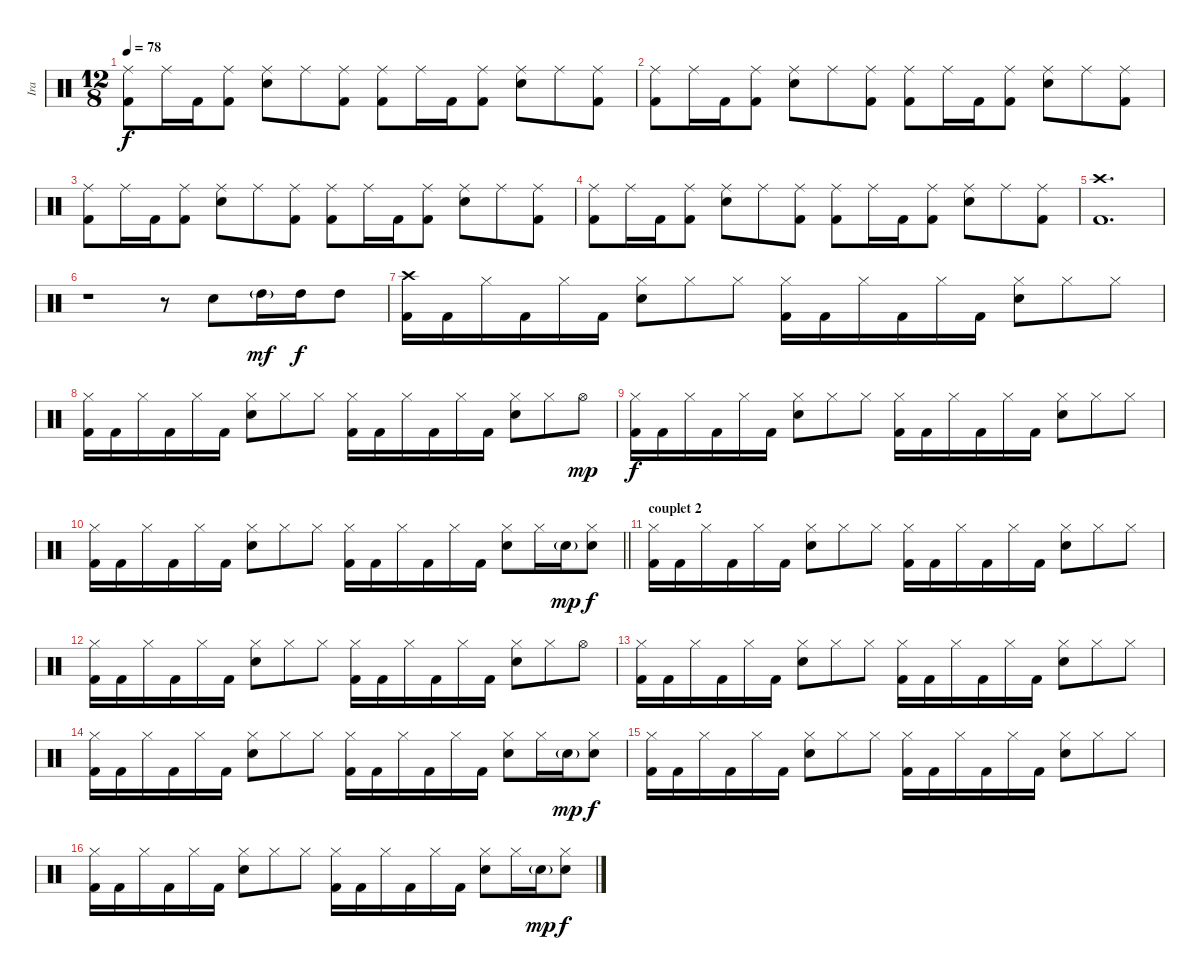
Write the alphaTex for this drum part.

\track ("Ira" "Ira") {instrument percussion}
\staff {score}
\articulation defaults
\ts (12 8)
\tempo 78
\clef neutral
\ks c
("Ride (middle)" "Kick (hit) 2").8{dy f} "Ride (middle)".16 "Kick (hit) 2".16 ("Ride (middle)" "Kick (hit) 2").8 ("Ride (middle)" "Snare (hit) 2").8 "Ride (middle)".8 ("Ride (middle)" "Kick (hit) 2").8 ("Ride (middle)" "Kick (hit) 2").8 "Ride (middle)".16 "Kick (hit) 2".16 ("Ride (middle)" "Kick (hit) 2").8 ("Ride (middle)" "Snare (hit) 2").8 "Ride (middle)".8 ("Ride (middle)" "Kick (hit) 2").8 |
("Ride (middle)" "Kick (hit) 2").8 "Ride (middle)".16 "Kick (hit) 2".16 ("Ride (middle)" "Kick (hit) 2").8 ("Ride (middle)" "Snare (hit) 2").8 "Ride (middle)".8 ("Ride (middle)" "Kick (hit) 2").8 ("Ride (middle)" "Kick (hit) 2").8 "Ride (middle)".16 "Kick (hit) 2".16 ("Ride (middle)" "Kick (hit) 2").8 ("Ride (middle)" "Snare (hit) 2").8 "Ride (middle)".8 ("Ride (middle)" "Kick (hit) 2").8 |
("Ride (middle)" "Kick (hit) 2").8 "Ride (middle)".16 "Kick (hit) 2".16 ("Ride (middle)" "Kick (hit) 2").8 ("Ride (middle)" "Snare (hit) 2").8 "Ride (middle)".8 ("Ride (middle)" "Kick (hit) 2").8 ("Ride (middle)" "Kick (hit) 2").8 "Ride (middle)".16 "Kick (hit) 2".16 ("Ride (middle)" "Kick (hit) 2").8 ("Ride (middle)" "Snare (hit) 2").8 "Ride (middle)".8 ("Ride (middle)" "Kick (hit) 2").8 |
("Ride (middle)" "Kick (hit) 2").8 "Ride (middle)".16 "Kick (hit) 2".16 ("Ride (middle)" "Kick (hit) 2").8 ("Ride (middle)" "Snare (hit) 2").8 "Ride (middle)".8 ("Ride (middle)" "Kick (hit) 2").8 ("Ride (middle)" "Kick (hit) 2").8 "Ride (middle)".16 "Kick (hit) 2".16 ("Ride (middle)" "Kick (hit) 2").8 ("Ride (middle)" "Snare (hit) 2").8 "Ride (middle)".8 ("Ride (middle)" "Kick (hit) 2").8 |
("Crash high (hit)" "Kick (hit) 2").1{d} |
r.1 r.8 "Snare (hit) 2".8 "High Tom (hit)"{g}.16{dy mf} "High Tom (hit)".16{dy f} "High Tom (hit)".8 |
("Crash high (hit)" "Kick (hit) 2").16 "Kick (hit) 2".16 "Hi-Hat (closed)".16 "Kick (hit) 2".16 "Hi-Hat (closed)".16 "Kick (hit) 2".16 ("Hi-Hat (closed)" "Snare (hit) 2").8 "Hi-Hat (closed)".8 "Hi-Hat (closed)".8 ("Hi-Hat (closed)" "Kick (hit) 2").16 "Kick (hit) 2".16 "Hi-Hat (closed)".16 "Kick (hit) 2".16 "Hi-Hat (closed)".16 "Kick (hit) 2".16 ("Hi-Hat (closed)" "Snare (hit) 2").8 "Hi-Hat (closed)".8 "Hi-Hat (closed)".8 |
("Hi-Hat (closed)" "Kick (hit) 2").16 "Kick (hit) 2".16 "Hi-Hat (closed)".16 "Kick (hit) 2".16 "Hi-Hat (closed)".16 "Kick (hit) 2".16 ("Hi-Hat (closed)" "Snare (hit) 2").8 "Hi-Hat (closed)".8 "Hi-Hat (closed)".8 ("Hi-Hat (closed)" "Kick (hit) 2").16 "Kick (hit) 2".16 "Hi-Hat (closed)".16 "Kick (hit) 2".16 "Hi-Hat (closed)".16 "Kick (hit) 2".16 ("Hi-Hat (closed)" "Snare (hit) 2").8 "Hi-Hat (closed)".8 "Hi-Hat (open)".8{dy mp} |
("Hi-Hat (closed)" "Kick (hit) 2").16{dy f} "Kick (hit) 2".16 "Hi-Hat (closed)".16 "Kick (hit) 2".16 "Hi-Hat (closed)".16 "Kick (hit) 2".16 ("Hi-Hat (closed)" "Snare (hit) 2").8 "Hi-Hat (closed)".8 "Hi-Hat (closed)".8 ("Hi-Hat (closed)" "Kick (hit) 2").16 "Kick (hit) 2".16 "Hi-Hat (closed)".16 "Kick (hit) 2".16 "Hi-Hat (closed)".16 "Kick (hit) 2".16 ("Hi-Hat (closed)" "Snare (hit) 2").8 "Hi-Hat (closed)".8 "Hi-Hat (closed)".8 |
\barLineRight lightlight
("Hi-Hat (closed)" "Kick (hit) 2").16 "Kick (hit) 2".16 "Hi-Hat (closed)".16 "Kick (hit) 2".16 "Hi-Hat (closed)".16 "Kick (hit) 2".16 ("Hi-Hat (closed)" "Snare (hit) 2").8 "Hi-Hat (closed)".8 "Hi-Hat (closed)".8 ("Hi-Hat (closed)" "Kick (hit) 2").16 "Kick (hit) 2".16 "Hi-Hat (closed)".16 "Kick (hit) 2".16 "Hi-Hat (closed)".16 "Kick (hit) 2".16 ("Hi-Hat (closed)" "Snare (hit) 2").8 "Hi-Hat (closed)".16 "Snare (hit) 2"{g}.16{dy mp} ("Hi-Hat (closed)" "Snare (hit) 2").8{dy f} |
\section ("" "couplet 2")
("Hi-Hat (closed)" "Kick (hit) 2").16 "Kick (hit) 2".16 "Hi-Hat (closed)".16 "Kick (hit) 2".16 "Hi-Hat (closed)".16 "Kick (hit) 2".16 ("Hi-Hat (closed)" "Snare (hit) 2").8 "Hi-Hat (closed)".8 "Hi-Hat (closed)".8 ("Hi-Hat (closed)" "Kick (hit) 2").16 "Kick (hit) 2".16 "Hi-Hat (closed)".16 "Kick (hit) 2".16 "Hi-Hat (closed)".16 "Kick (hit) 2".16 ("Hi-Hat (closed)" "Snare (hit) 2").8 "Hi-Hat (closed)".8 "Hi-Hat (closed)".8 |
("Hi-Hat (closed)" "Kick (hit) 2").16 "Kick (hit) 2".16 "Hi-Hat (closed)".16 "Kick (hit) 2".16 "Hi-Hat (closed)".16 "Kick (hit) 2".16 ("Hi-Hat (closed)" "Snare (hit) 2").8 "Hi-Hat (closed)".8 "Hi-Hat (closed)".8 ("Hi-Hat (closed)" "Kick (hit) 2").16 "Kick (hit) 2".16 "Hi-Hat (closed)".16 "Kick (hit) 2".16 "Hi-Hat (closed)".16 "Kick (hit) 2".16 ("Hi-Hat (closed)" "Snare (hit) 2").8 "Hi-Hat (closed)".8 "Hi-Hat (open)".8 |
("Hi-Hat (closed)" "Kick (hit) 2").16 "Kick (hit) 2".16 "Hi-Hat (closed)".16 "Kick (hit) 2".16 "Hi-Hat (closed)".16 "Kick (hit) 2".16 ("Hi-Hat (closed)" "Snare (hit) 2").8 "Hi-Hat (closed)".8 "Hi-Hat (closed)".8 ("Hi-Hat (closed)" "Kick (hit) 2").16 "Kick (hit) 2".16 "Hi-Hat (closed)".16 "Kick (hit) 2".16 "Hi-Hat (closed)".16 "Kick (hit) 2".16 ("Hi-Hat (closed)" "Snare (hit) 2").8 "Hi-Hat (closed)".8 "Hi-Hat (closed)".8 |
("Hi-Hat (closed)" "Kick (hit) 2").16 "Kick (hit) 2".16 "Hi-Hat (closed)".16 "Kick (hit) 2".16 "Hi-Hat (closed)".16 "Kick (hit) 2".16 ("Hi-Hat (closed)" "Snare (hit) 2").8 "Hi-Hat (closed)".8 "Hi-Hat (closed)".8 ("Hi-Hat (closed)" "Kick (hit) 2").16 "Kick (hit) 2".16 "Hi-Hat (closed)".16 "Kick (hit) 2".16 "Hi-Hat (closed)".16 "Kick (hit) 2".16 ("Hi-Hat (closed)" "Snare (hit) 2").8 "Hi-Hat (closed)".16 "Snare (hit) 2"{g}.16{dy mp} ("Hi-Hat (closed)" "Snare (hit) 2").8{dy f} |
("Hi-Hat (closed)" "Kick (hit) 2").16 "Kick (hit) 2".16 "Hi-Hat (closed)".16 "Kick (hit) 2".16 "Hi-Hat (closed)".16 "Kick (hit) 2".16 ("Hi-Hat (closed)" "Snare (hit) 2").8 "Hi-Hat (closed)".8 "Hi-Hat (closed)".8 ("Hi-Hat (closed)" "Kick (hit) 2").16 "Kick (hit) 2".16 "Hi-Hat (closed)".16 "Kick (hit) 2".16 "Hi-Hat (closed)".16 "Kick (hit) 2".16 ("Hi-Hat (closed)" "Snare (hit) 2").8 "Hi-Hat (closed)".8 "Hi-Hat (closed)".8 |
("Hi-Hat (closed)" "Kick (hit) 2").16 "Kick (hit) 2".16 "Hi-Hat (closed)".16 "Kick (hit) 2".16 "Hi-Hat (closed)".16 "Kick (hit) 2".16 ("Hi-Hat (closed)" "Snare (hit) 2").8 "Hi-Hat (closed)".8 "Hi-Hat (closed)".8 ("Hi-Hat (closed)" "Kick (hit) 2").16 "Kick (hit) 2".16 "Hi-Hat (closed)".16 "Kick (hit) 2".16 "Hi-Hat (closed)".16 "Kick (hit) 2".16 ("Hi-Hat (closed)" "Snare (hit) 2").8 "Hi-Hat (closed)".16 "Snare (hit) 2"{g}.16{dy mp} ("Hi-Hat (closed)" "Snare (hit) 2").8{dy f}
